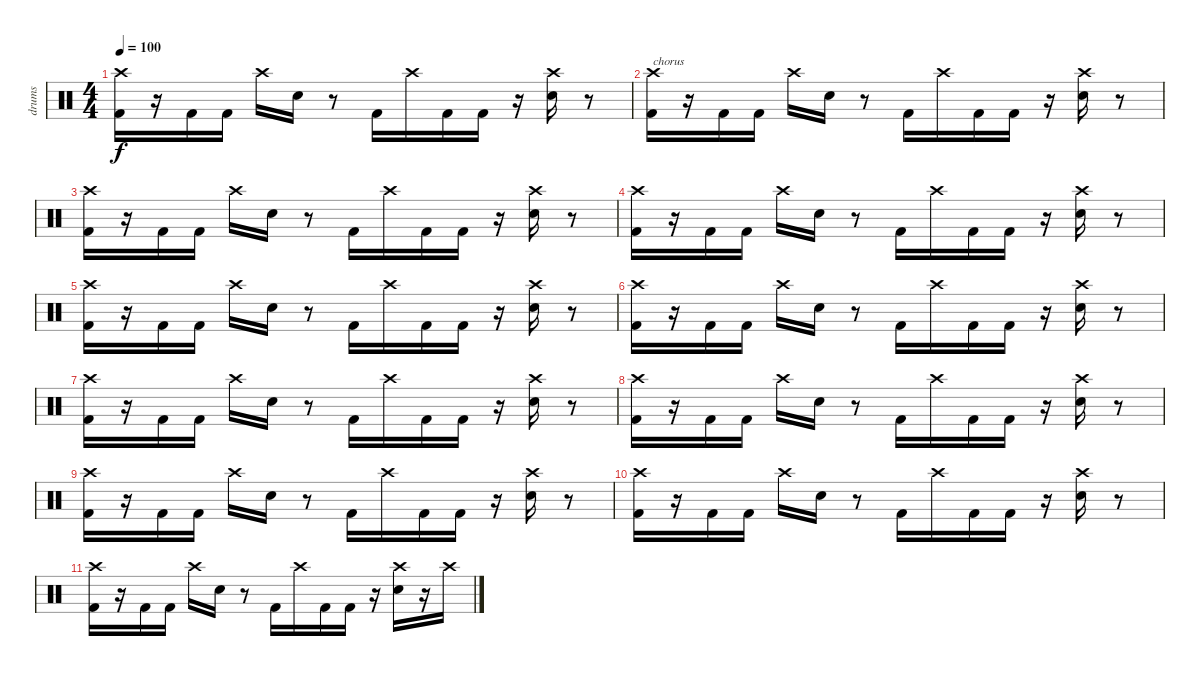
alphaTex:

\track ("drums" "drums") {instrument percussion}
\staff {score}
\articulation defaults
\ts (4 4)
\tempo 100
\clef neutral
\ks c
("Crash high (hit)" "Kick (hit) 2").16{dy f} r.16 "Kick (hit) 2".16 "Kick (hit) 2".16 "Crash high (hit)".16 "Electric Snare (hit)".16 r.8 "Kick (hit) 2".16 "Crash high (hit)".16 "Kick (hit) 2".16 "Kick (hit) 2".16 r.16 ("Crash high (hit)" "Electric Snare (hit)").16 r.8 |
("Crash high (hit)" "Kick (hit) 2").16{txt "chorus"} r.16 "Kick (hit) 2".16 "Kick (hit) 2".16 "Crash high (hit)".16 "Electric Snare (hit)".16 r.8 "Kick (hit) 2".16 "Crash high (hit)".16 "Kick (hit) 2".16 "Kick (hit) 2".16 r.16 ("Crash high (hit)" "Electric Snare (hit)").16 r.8 |
("Crash high (hit)" "Kick (hit) 2").16 r.16 "Kick (hit) 2".16 "Kick (hit) 2".16 "Crash high (hit)".16 "Electric Snare (hit)".16 r.8 "Kick (hit) 2".16 "Crash high (hit)".16 "Kick (hit) 2".16 "Kick (hit) 2".16 r.16 ("Crash high (hit)" "Electric Snare (hit)").16 r.8 |
("Crash high (hit)" "Kick (hit) 2").16 r.16 "Kick (hit) 2".16 "Kick (hit) 2".16 "Crash high (hit)".16 "Electric Snare (hit)".16 r.8 "Kick (hit) 2".16 "Crash high (hit)".16 "Kick (hit) 2".16 "Kick (hit) 2".16 r.16 ("Crash high (hit)" "Electric Snare (hit)").16 r.8 |
("Crash high (hit)" "Kick (hit) 2").16 r.16 "Kick (hit) 2".16 "Kick (hit) 2".16 "Crash high (hit)".16 "Electric Snare (hit)".16 r.8 "Kick (hit) 2".16 "Crash high (hit)".16 "Kick (hit) 2".16 "Kick (hit) 2".16 r.16 ("Crash high (hit)" "Electric Snare (hit)").16 r.8 |
("Crash high (hit)" "Kick (hit) 2").16 r.16 "Kick (hit) 2".16 "Kick (hit) 2".16 "Crash high (hit)".16 "Electric Snare (hit)".16 r.8 "Kick (hit) 2".16 "Crash high (hit)".16 "Kick (hit) 2".16 "Kick (hit) 2".16 r.16 ("Crash high (hit)" "Electric Snare (hit)").16 r.8 |
("Crash high (hit)" "Kick (hit) 2").16 r.16 "Kick (hit) 2".16 "Kick (hit) 2".16 "Crash high (hit)".16 "Electric Snare (hit)".16 r.8 "Kick (hit) 2".16 "Crash high (hit)".16 "Kick (hit) 2".16 "Kick (hit) 2".16 r.16 ("Crash high (hit)" "Electric Snare (hit)").16 r.8 |
("Crash high (hit)" "Kick (hit) 2").16 r.16 "Kick (hit) 2".16 "Kick (hit) 2".16 "Crash high (hit)".16 "Electric Snare (hit)".16 r.8 "Kick (hit) 2".16 "Crash high (hit)".16 "Kick (hit) 2".16 "Kick (hit) 2".16 r.16 ("Crash high (hit)" "Electric Snare (hit)").16 r.8 |
("Crash high (hit)" "Kick (hit) 2").16 r.16 "Kick (hit) 2".16 "Kick (hit) 2".16 "Crash high (hit)".16 "Electric Snare (hit)".16 r.8 "Kick (hit) 2".16 "Crash high (hit)".16 "Kick (hit) 2".16 "Kick (hit) 2".16 r.16 ("Crash high (hit)" "Electric Snare (hit)").16 r.8 |
("Crash high (hit)" "Kick (hit) 2").16 r.16 "Kick (hit) 2".16 "Kick (hit) 2".16 "Crash high (hit)".16 "Electric Snare (hit)".16 r.8 "Kick (hit) 2".16 "Crash high (hit)".16 "Kick (hit) 2".16 "Kick (hit) 2".16 r.16 ("Crash high (hit)" "Electric Snare (hit)").16 r.8 |
("Crash high (hit)" "Kick (hit) 2").16 r.16 "Kick (hit) 2".16 "Kick (hit) 2".16 "Crash high (hit)".16 "Electric Snare (hit)".16 r.8 "Kick (hit) 2".16 "Crash high (hit)".16 "Kick (hit) 2".16 "Kick (hit) 2".16 r.16 ("Crash high (hit)" "Electric Snare (hit)").16 r.16 "Crash high (hit)".16
